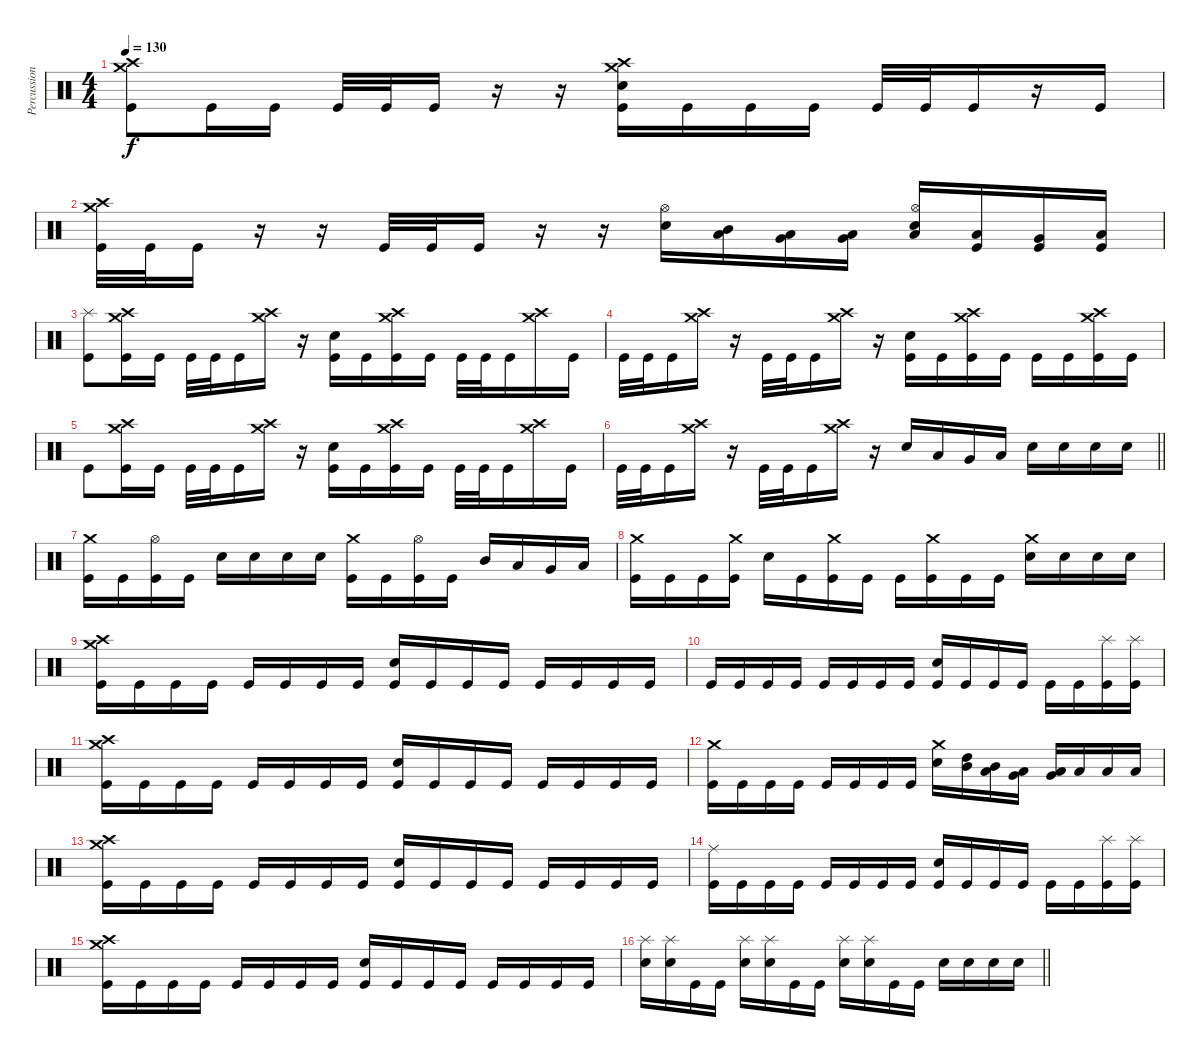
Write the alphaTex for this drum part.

\track ("Percussion (Approx.)" "Percussion") {instrument percussion}
\staff {score}
\articulation defaults
\ts (4 4)
\tempo 130
\clef neutral
\ks c
("Crash medium (hit)" "Crash high (hit)" "Kick (hit)").8{dy f} "Kick (hit)".16 "Kick (hit)".16 "Kick (hit)".32 "Kick (hit)".32 "Kick (hit)".16 r.16 r.16 ("Crash medium (hit)" "Crash high (hit)" "Electric Snare (hit)" "Kick (hit)").16 "Kick (hit)".16 "Kick (hit)".16 "Kick (hit)".16 "Kick (hit)".32 "Kick (hit)".32 "Kick (hit)".16 r.16 "Kick (hit)".16 |
("Crash medium (hit)" "Crash high (hit)" "Kick (hit)").32 "Kick (hit)".32 "Kick (hit)".16 r.16 r.16 "Kick (hit)".32 "Kick (hit)".32 "Kick (hit)".16 r.16 r.16 ("Hi-Hat (open)" "Electric Snare (hit)").16 ("Mid Tom (hit)" "Low Tom (hit)").16 ("Low Tom (hit)" "Very Low Tom (hit)").16 ("Very Low Tom (hit)" "Low Floor Tom (hit)").16 ("Hi-Hat (open)" "Low Floor Tom (hit)" "Electric Snare (hit)").16 ("Low Tom (hit)" "Kick (hit)").16 ("Very Low Tom (hit)" "Kick (hit)").16 ("Low Floor Tom (hit)" "Kick (hit)").16 |
("Splash (hit)" "Kick (hit)").8 ("Crash medium (hit)" "Crash high (hit)" "Kick (hit)").16 "Kick (hit)".16 "Kick (hit)".32 "Kick (hit)".32 "Kick (hit)".16 ("Crash medium (hit)" "Crash high (hit)").16 r.16 ("Electric Snare (hit)" "Kick (hit)").16 "Kick (hit)".16 ("Crash medium (hit)" "Crash high (hit)" "Kick (hit)").16 "Kick (hit)".16 "Kick (hit)".32 "Kick (hit)".32 "Kick (hit)".16 ("Crash medium (hit)" "Crash high (hit)").16 "Kick (hit)".16 |
"Kick (hit)".32 "Kick (hit)".32 "Kick (hit)".16 ("Crash medium (hit)" "Crash high (hit)").16 r.16 "Kick (hit)".32 "Kick (hit)".32 "Kick (hit)".16 ("Crash medium (hit)" "Crash high (hit)").16 r.16 ("Electric Snare (hit)" "Kick (hit)").16 "Kick (hit)".16 ("Crash medium (hit)" "Crash high (hit)" "Kick (hit)").16 "Kick (hit)".16 "Kick (hit)".16 "Kick (hit)".16 ("Crash medium (hit)" "Crash high (hit)" "Kick (hit)").16 "Kick (hit)".16 |
"Kick (hit)".8 ("Crash medium (hit)" "Crash high (hit)" "Kick (hit)").16 "Kick (hit)".16 "Kick (hit)".32 "Kick (hit)".32 "Kick (hit)".16 ("Crash medium (hit)" "Crash high (hit)").16 r.16 ("Electric Snare (hit)" "Kick (hit)").16 "Kick (hit)".16 ("Crash medium (hit)" "Crash high (hit)" "Kick (hit)").16 "Kick (hit)".16 "Kick (hit)".32 "Kick (hit)".32 "Kick (hit)".16 ("Crash medium (hit)" "Crash high (hit)").16 "Kick (hit)".16 |
\barLineRight lightlight "Kick (hit)".32 "Kick (hit)".32 "Kick (hit)".16
("Crash medium (hit)" "Crash high (hit)").16 r.16 "Kick (hit)".32 "Kick (hit)".32 "Kick (hit)".16 ("Crash medium (hit)" "Crash high (hit)").16 r.16 "Electric Snare (hit)".16 "Low Tom (hit)".16 "Very Low Tom (hit)".16 "Low Floor Tom (hit)".16 "Electric Snare (hit)".16 "Electric Snare (hit)".16 "Electric Snare (hit)".16 "Electric Snare (hit)".16 |
\section ("" "")
("Crash medium (hit)" "Kick (hit)").16 "Kick (hit)".16 ("Hi-Hat (open)" "Kick (hit)").16 "Kick (hit)".16 "Electric Snare (hit)".16 "Electric Snare (hit)".16 "Electric Snare (hit)".16 "Electric Snare (hit)".16 ("Crash medium (hit)" "Kick (hit)").16 "Kick (hit)".16 ("Hi-Hat (open)" "Kick (hit)").16 "Kick (hit)".16 "Mid Tom (hit)".16 "Low Tom (hit)".16 "Very Low Tom (hit)".16 "Low Floor Tom (hit)".16 |
("Crash medium (hit)" "Kick (hit)").16 "Kick (hit)".16 "Kick (hit)".16 ("Crash medium (hit)" "Kick (hit)").16 "Electric Snare (hit)".16 "Kick (hit)".16 ("Crash medium (hit)" "Kick (hit)").16 "Kick (hit)".16 "Kick (hit)".16 ("Crash medium (hit)" "Kick (hit)").16 "Kick (hit)".16 "Kick (hit)".16 ("Crash medium (hit)" "Electric Snare (hit)").16 "Electric Snare (hit)".16 "Electric Snare (hit)".16 "Electric Snare (hit)".16 |
("Crash medium (hit)" "Crash high (hit)" "Kick (hit)").16 "Kick (hit)".16 "Kick (hit)".16 "Kick (hit)".16 "Kick (hit)".16 "Kick (hit)".16 "Kick (hit)".16 "Kick (hit)".16 ("Electric Snare (hit)" "Kick (hit)").16 "Kick (hit)".16 "Kick (hit)".16 "Kick (hit)".16 "Kick (hit)".16 "Kick (hit)".16 "Kick (hit)".16 "Kick (hit)".16 |
"Kick (hit)".16 "Kick (hit)".16 "Kick (hit)".16 "Kick (hit)".16 "Kick (hit)".16 "Kick (hit)".16 "Kick (hit)".16 "Kick (hit)".16 ("Electric Snare (hit)" "Kick (hit)").16 "Kick (hit)".16 "Kick (hit)".16 "Kick (hit)".16 "Kick (hit)".16 "Kick (hit)".16 ("Splash (hit)" "Kick (hit)").16 ("Splash (hit)" "Kick (hit)").16 |
("Crash medium (hit)" "Crash high (hit)" "Kick (hit)").16 "Kick (hit)".16 "Kick (hit)".16 "Kick (hit)".16 "Kick (hit)".16 "Kick (hit)".16 "Kick (hit)".16 "Kick (hit)".16 ("Electric Snare (hit)" "Kick (hit)").16 "Kick (hit)".16 "Kick (hit)".16 "Kick (hit)".16 "Kick (hit)".16 "Kick (hit)".16 "Kick (hit)".16 "Kick (hit)".16 |
("Crash medium (hit)" "Kick (hit)").16 "Kick (hit)".16 "Kick (hit)".16 "Kick (hit)".16 "Kick (hit)".16 "Kick (hit)".16 "Kick (hit)".16 "Kick (hit)".16 ("Crash medium (hit)" "Electric Snare (hit)").16 ("High Tom (hit)" "Mid Tom (hit)").16 ("Mid Tom (hit)" "Low Tom (hit)").16 ("Low Tom (hit)" "Very Low Tom (hit)").16 ("Very Low Tom (hit)" "Low Floor Tom (hit)").16 "Low Floor Tom (hit)".16 "Low Floor Tom (hit)".16 "Low Floor Tom (hit)".16 |
("Crash medium (hit)" "Crash high (hit)" "Kick (hit)").16 "Kick (hit)".16 "Kick (hit)".16 "Kick (hit)".16 "Kick (hit)".16 "Kick (hit)".16 "Kick (hit)".16 "Kick (hit)".16 ("Electric Snare (hit)" "Kick (hit)").16 "Kick (hit)".16 "Kick (hit)".16 "Kick (hit)".16 "Kick (hit)".16 "Kick (hit)".16 "Kick (hit)".16 "Kick (hit)".16 |
("Ride (middle)" "Kick (hit)").16 "Kick (hit)".16 "Kick (hit)".16 "Kick (hit)".16 "Kick (hit)".16 "Kick (hit)".16 "Kick (hit)".16 "Kick (hit)".16 ("Electric Snare (hit)" "Kick (hit)").16 "Kick (hit)".16 "Kick (hit)".16 "Kick (hit)".16 "Kick (hit)".16 "Kick (hit)".16 ("Splash (hit)" "Kick (hit)").16 ("Splash (hit)" "Kick (hit)").16 |
("Crash medium (hit)" "Crash high (hit)" "Kick (hit)").16 "Kick (hit)".16 "Kick (hit)".16 "Kick (hit)".16 "Kick (hit)".16 "Kick (hit)".16 "Kick (hit)".16 "Kick (hit)".16 ("Electric Snare (hit)" "Kick (hit)").16 "Kick (hit)".16 "Kick (hit)".16 "Kick (hit)".16 "Kick (hit)".16 "Kick (hit)".16 "Kick (hit)".16 "Kick (hit)".16 |
\barLineRight lightlight
("Splash (hit)" "Electric Snare (hit)").16 ("Splash (hit)" "Electric Snare (hit)").16 "Kick (hit)".16 "Kick (hit)".16 ("Splash (hit)" "Electric Snare (hit)").16 ("Splash (hit)" "Electric Snare (hit)").16 "Kick (hit)".16 "Kick (hit)".16 ("Splash (hit)" "Electric Snare (hit)").16 ("Splash (hit)" "Electric Snare (hit)").16 "Kick (hit)".16 "Kick (hit)".16 "Electric Snare (hit)".16 "Electric Snare (hit)".16 "Electric Snare (hit)".16 "Electric Snare (hit)".16
